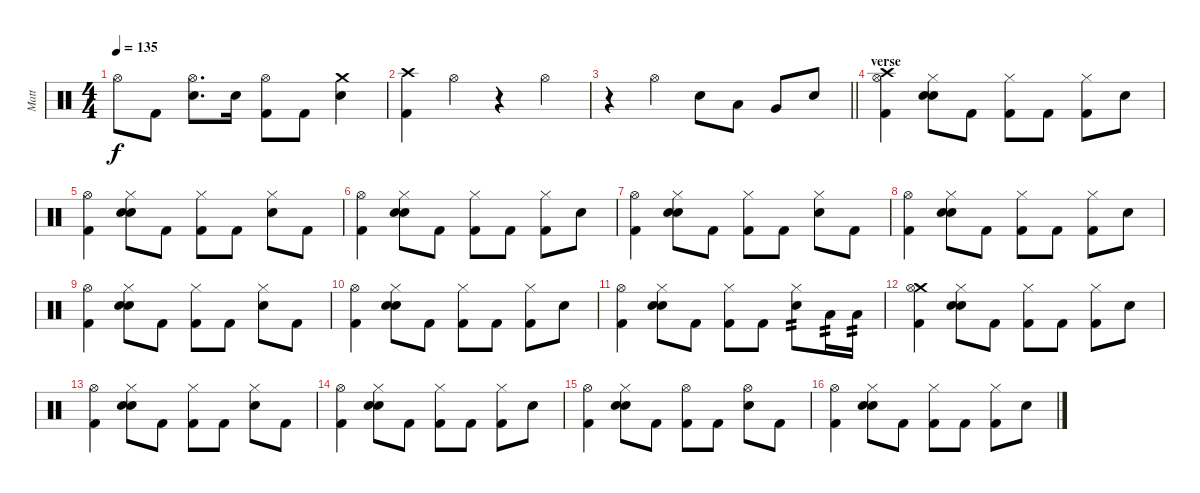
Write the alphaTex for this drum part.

\track ("Matt" "Matt") {instrument percussion}
\staff {score}
\articulation defaults
\ts (4 4)
\tempo 135
\clef neutral
\ks c "Hi-Hat (open)".8{dy f} "Kick (hit) 2".8
("Hi-Hat (open)" "Snare (hit) 2").8{d} "Snare (hit) 2".16 ("Hi-Hat (open)" "Kick (hit) 2").8 "Kick (hit) 2".8 ("Crash medium (hit)" "Snare (hit) 2").4 |
("Crash high (hit)" "Kick (hit) 2").4 "Hi-Hat (open)".4 r.4 "Hi-Hat (open)".4 |
\barLineRight lightlight
r.4 "Hi-Hat (open)".4 "Snare (hit) 2".8 "Low Tom (hit)".8 "Very Low Tom (hit)".8 "Snare (hit) 2".8 |
\section ("" "verse")
("Crash high (hit)" "Hi-Hat (open)" "Kick (hit) 2").4 ("Hand Clap (hit)" "Hi-Hat (closed)" "Snare (hit) 2").8 "Kick (hit) 2".8 ("Hi-Hat (closed)" "Kick (hit) 2").8 "Kick (hit) 2".8 ("Hi-Hat (closed)" "Kick (hit) 2").8 "Snare (hit) 2".8 |
("Hi-Hat (open)" "Kick (hit) 2").4 ("Hand Clap (hit)" "Hi-Hat (closed)" "Snare (hit) 2").8 "Kick (hit) 2".8 ("Hi-Hat (closed)" "Kick (hit) 2").8 "Kick (hit) 2".8 ("Hi-Hat (closed)" "Snare (hit) 2").8 "Kick (hit) 2".8 |
("Hi-Hat (open)" "Kick (hit) 2").4 ("Hand Clap (hit)" "Hi-Hat (closed)" "Snare (hit) 2").8 "Kick (hit) 2".8 ("Hi-Hat (closed)" "Kick (hit) 2").8 "Kick (hit) 2".8 ("Hi-Hat (closed)" "Kick (hit) 2").8 "Snare (hit) 2".8 |
("Hi-Hat (open)" "Kick (hit) 2").4 ("Hand Clap (hit)" "Hi-Hat (closed)" "Snare (hit) 2").8 "Kick (hit) 2".8 ("Hi-Hat (closed)" "Kick (hit) 2").8 "Kick (hit) 2".8 ("Hi-Hat (closed)" "Snare (hit) 2").8 "Kick (hit) 2".8 |
("Hi-Hat (open)" "Kick (hit) 2").4 ("Hand Clap (hit)" "Hi-Hat (closed)" "Snare (hit) 2").8 "Kick (hit) 2".8 ("Hi-Hat (closed)" "Kick (hit) 2").8 "Kick (hit) 2".8 ("Hi-Hat (closed)" "Kick (hit) 2").8 "Snare (hit) 2".8 |
("Hi-Hat (open)" "Kick (hit) 2").4 ("Hand Clap (hit)" "Hi-Hat (closed)" "Snare (hit) 2").8 "Kick (hit) 2".8 ("Hi-Hat (closed)" "Kick (hit) 2").8 "Kick (hit) 2".8 ("Hi-Hat (closed)" "Snare (hit) 2").8 "Kick (hit) 2".8 |
("Hi-Hat (open)" "Kick (hit) 2").4 ("Hand Clap (hit)" "Hi-Hat (closed)" "Snare (hit) 2").8 "Kick (hit) 2".8 ("Hi-Hat (closed)" "Kick (hit) 2").8 "Kick (hit) 2".8 ("Hi-Hat (closed)" "Kick (hit) 2").8 "Snare (hit) 2".8 |
("Hi-Hat (open)" "Kick (hit) 2").4 ("Hand Clap (hit)" "Hi-Hat (closed)" "Snare (hit) 2").8 "Kick (hit) 2".8 ("Hi-Hat (closed)" "Kick (hit) 2").8 "Kick (hit) 2".8 ("Hi-Hat (closed)" "Snare (hit) 2").8{tp 2} "Low Tom (hit)".16{tp 2} "Low Floor Tom (hit)".16{tp 2} |
("Crash medium (hit)" "Hi-Hat (open)" "Kick (hit) 2").4 ("Hand Clap (hit)" "Hi-Hat (closed)" "Snare (hit) 2").8 "Kick (hit) 2".8 ("Hi-Hat (closed)" "Kick (hit) 2").8 "Kick (hit) 2".8 ("Hi-Hat (closed)" "Kick (hit) 2").8 "Snare (hit) 2".8 |
("Hi-Hat (open)" "Kick (hit) 2").4 ("Hand Clap (hit)" "Hi-Hat (closed)" "Snare (hit) 2").8 "Kick (hit) 2".8 ("Hi-Hat (closed)" "Kick (hit) 2").8 "Kick (hit) 2".8 ("Hi-Hat (closed)" "Snare (hit) 2").8 "Kick (hit) 2".8 |
("Hi-Hat (open)" "Kick (hit) 2").4 ("Hand Clap (hit)" "Hi-Hat (closed)" "Snare (hit) 2").8 "Kick (hit) 2".8 ("Hi-Hat (closed)" "Kick (hit) 2").8 "Kick (hit) 2".8 ("Hi-Hat (closed)" "Kick (hit) 2").8 "Snare (hit) 2".8 |
("Hi-Hat (open)" "Kick (hit) 2").4 ("Hand Clap (hit)" "Hi-Hat (closed)" "Snare (hit) 2").8 "Kick (hit) 2".8 ("Hi-Hat (open)" "Kick (hit) 2").8 "Kick (hit) 2".8 ("Hi-Hat (open)" "Snare (hit) 2").8 "Kick (hit) 2".8 |
("Hi-Hat (open)" "Kick (hit) 2").4 ("Hand Clap (hit)" "Hi-Hat (closed)" "Snare (hit) 2").8 "Kick (hit) 2".8 ("Hi-Hat (closed)" "Kick (hit) 2").8 "Kick (hit) 2".8 ("Hi-Hat (closed)" "Kick (hit) 2").8 "Snare (hit) 2".8
